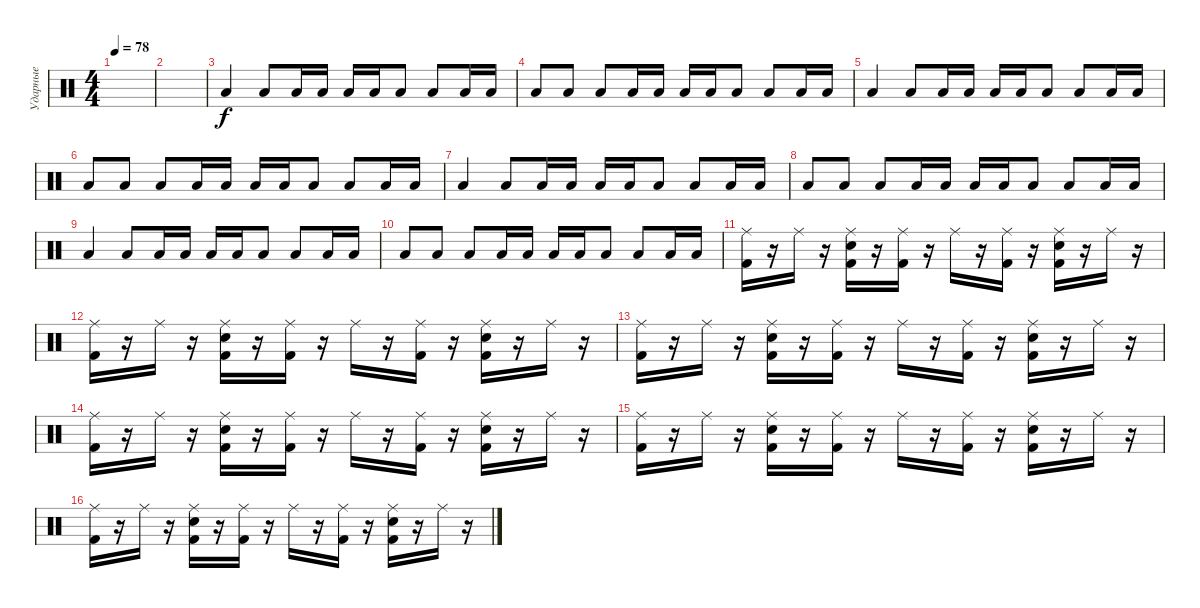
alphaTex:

\track ("Ударные" "Ударные") {instrument percussion}
\staff {score}
\articulation defaults
\ts (4 4)
\tempo 78
\clef neutral
\ks c
|
|
"Low Tom (hit)".4 "Low Tom (hit)".8 "Low Tom (hit)".16 "Low Tom (hit)".16 "Low Tom (hit)".16 "Low Tom (hit)".16 "Low Tom (hit)".8 "Low Tom (hit)".8 "Low Tom (hit)".16 "Low Tom (hit)".16 |
"Low Tom (hit)".8 "Low Tom (hit)".8 "Low Tom (hit)".8 "Low Tom (hit)".16 "Low Tom (hit)".16 "Low Tom (hit)".16 "Low Tom (hit)".16 "Low Tom (hit)".8 "Low Tom (hit)".8 "Low Tom (hit)".16 "Low Tom (hit)".16 |
"Low Tom (hit)".4 "Low Tom (hit)".8 "Low Tom (hit)".16 "Low Tom (hit)".16 "Low Tom (hit)".16 "Low Tom (hit)".16 "Low Tom (hit)".8 "Low Tom (hit)".8 "Low Tom (hit)".16 "Low Tom (hit)".16 |
"Low Tom (hit)".8 "Low Tom (hit)".8 "Low Tom (hit)".8 "Low Tom (hit)".16 "Low Tom (hit)".16 "Low Tom (hit)".16 "Low Tom (hit)".16 "Low Tom (hit)".8 "Low Tom (hit)".8 "Low Tom (hit)".16 "Low Tom (hit)".16 |
"Low Tom (hit)".4 "Low Tom (hit)".8 "Low Tom (hit)".16 "Low Tom (hit)".16 "Low Tom (hit)".16 "Low Tom (hit)".16 "Low Tom (hit)".8 "Low Tom (hit)".8 "Low Tom (hit)".16 "Low Tom (hit)".16 |
"Low Tom (hit)".8 "Low Tom (hit)".8 "Low Tom (hit)".8 "Low Tom (hit)".16 "Low Tom (hit)".16 "Low Tom (hit)".16 "Low Tom (hit)".16 "Low Tom (hit)".8 "Low Tom (hit)".8 "Low Tom (hit)".16 "Low Tom (hit)".16 |
"Low Tom (hit)".4 "Low Tom (hit)".8 "Low Tom (hit)".16 "Low Tom (hit)".16 "Low Tom (hit)".16 "Low Tom (hit)".16 "Low Tom (hit)".8 "Low Tom (hit)".8 "Low Tom (hit)".16 "Low Tom (hit)".16 |
"Low Tom (hit)".8 "Low Tom (hit)".8 "Low Tom (hit)".8 "Low Tom (hit)".16 "Low Tom (hit)".16 "Low Tom (hit)".16 "Low Tom (hit)".16 "Low Tom (hit)".8 "Low Tom (hit)".8 "Low Tom (hit)".16 "Low Tom (hit)".16 |
("Ride (middle)" "Kick (hit) 2").16 r.16 "Ride (middle)".16 r.16 ("Ride (middle)" "Electric Snare (hit)" "Kick (hit) 2").16 r.16 ("Ride (middle)" "Kick (hit) 2").16 r.16 "Ride (middle)".16 r.16 ("Ride (middle)" "Kick (hit) 2").16 r.16 ("Ride (middle)" "Electric Snare (hit)" "Kick (hit) 2").16 r.16 "Ride (middle)".16 r.16 |
("Ride (middle)" "Kick (hit) 2").16 r.16 "Ride (middle)".16 r.16 ("Ride (middle)" "Electric Snare (hit)" "Kick (hit) 2").16 r.16 ("Ride (middle)" "Kick (hit) 2").16 r.16 "Ride (middle)".16 r.16 ("Ride (middle)" "Kick (hit) 2").16 r.16 ("Ride (middle)" "Electric Snare (hit)" "Kick (hit) 2").16 r.16 "Ride (middle)".16 r.16 |
("Ride (middle)" "Kick (hit) 2").16 r.16 "Ride (middle)".16 r.16 ("Ride (middle)" "Electric Snare (hit)" "Kick (hit) 2").16 r.16 ("Ride (middle)" "Kick (hit) 2").16 r.16 "Ride (middle)".16 r.16 ("Ride (middle)" "Kick (hit) 2").16 r.16 ("Ride (middle)" "Electric Snare (hit)" "Kick (hit) 2").16 r.16 "Ride (middle)".16 r.16 |
("Ride (middle)" "Kick (hit) 2").16 r.16 "Ride (middle)".16 r.16 ("Ride (middle)" "Electric Snare (hit)" "Kick (hit) 2").16 r.16 ("Ride (middle)" "Kick (hit) 2").16 r.16 "Ride (middle)".16 r.16 ("Ride (middle)" "Kick (hit) 2").16 r.16 ("Ride (middle)" "Electric Snare (hit)" "Kick (hit) 2").16 r.16 "Ride (middle)".16 r.16 |
("Ride (middle)" "Kick (hit) 2").16 r.16 "Ride (middle)".16 r.16 ("Ride (middle)" "Electric Snare (hit)" "Kick (hit) 2").16 r.16 ("Ride (middle)" "Kick (hit) 2").16 r.16 "Ride (middle)".16 r.16 ("Ride (middle)" "Kick (hit) 2").16 r.16 ("Ride (middle)" "Electric Snare (hit)" "Kick (hit) 2").16 r.16 "Ride (middle)".16 r.16 |
("Ride (middle)" "Kick (hit) 2").16 r.16 "Ride (middle)".16 r.16 ("Ride (middle)" "Electric Snare (hit)" "Kick (hit) 2").16 r.16 ("Ride (middle)" "Kick (hit) 2").16 r.16 "Ride (middle)".16 r.16 ("Ride (middle)" "Kick (hit) 2").16 r.16 ("Ride (middle)" "Electric Snare (hit)" "Kick (hit) 2").16 r.16 "Ride (middle)".16 r.16
